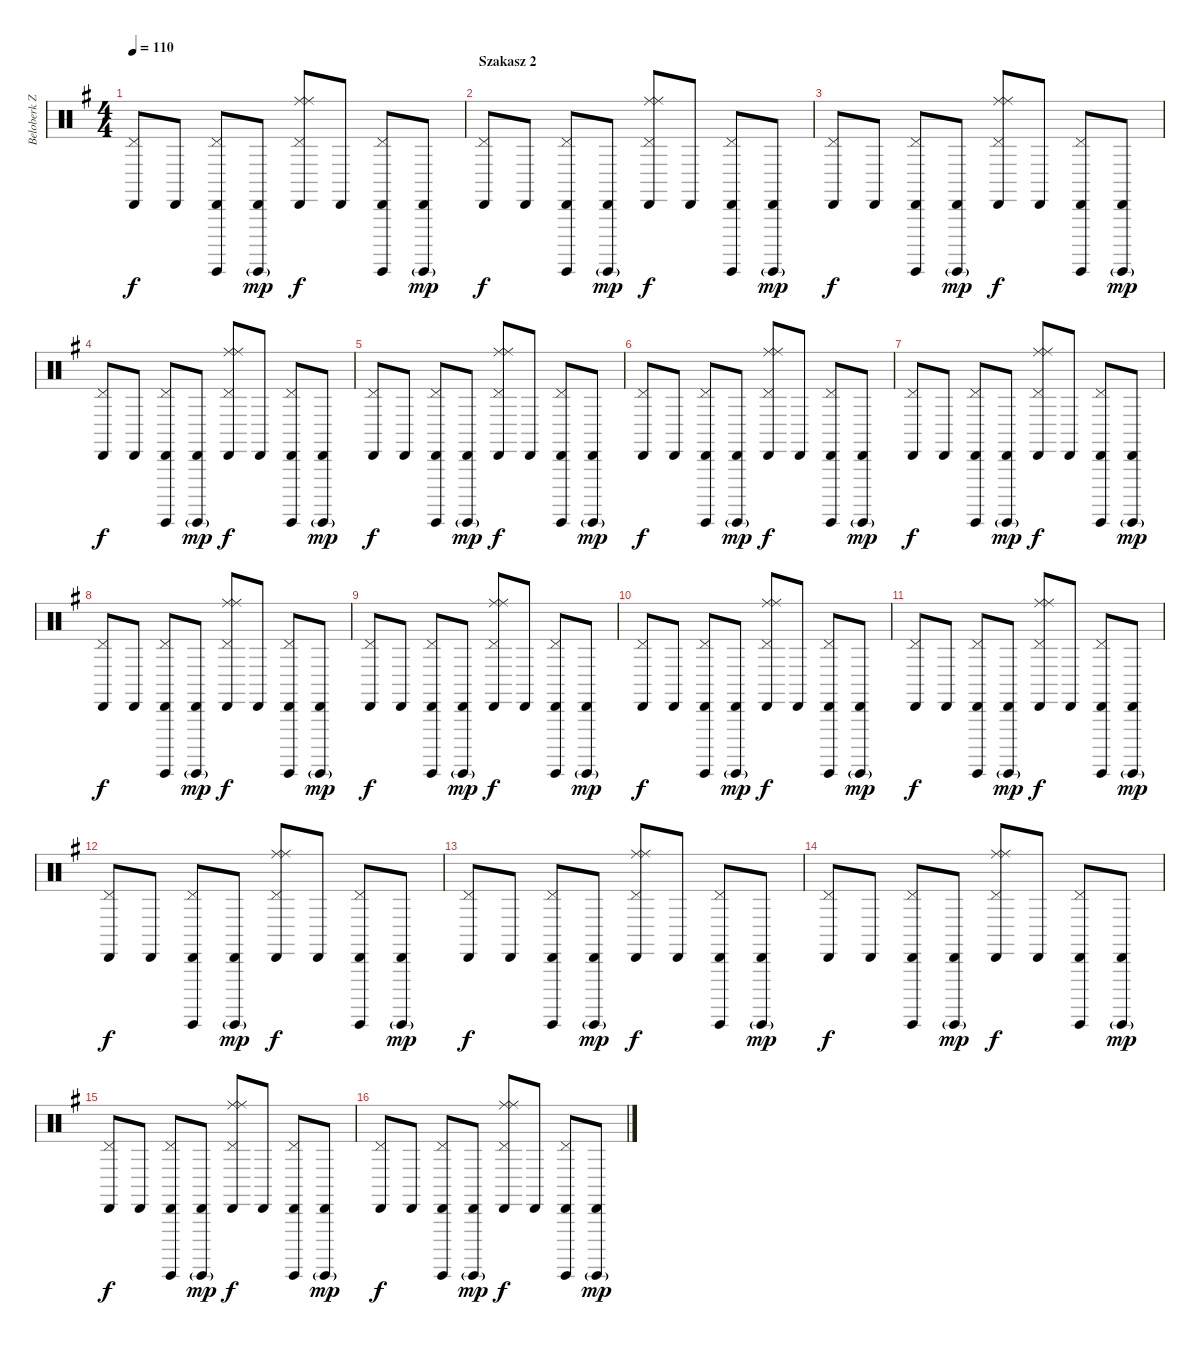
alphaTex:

\track ("Beloberk Zsolt" "Beloberk Z") {instrument percussion}
\staff {score}
\articulation defaults
\ts (4 4)
\tempo 110
\clef neutral
\ks eminor
("Cabasa (hit)" "Pedal Hi-Hat (hit)").8{dy f} "Cabasa (hit)".8 ("Cabasa (hit)" "Guiro (hit)" "Pedal Hi-Hat (hit)").8 ("Cabasa (hit)" "Guiro (hit)"{g}).8{dy mp} ("Cabasa (hit)" "Pedal Hi-Hat (hit)" "Ride (middle)" "Ride (middle)").8{dy f} "Cabasa (hit)".8 ("Cabasa (hit)" "Guiro (hit)" "Pedal Hi-Hat (hit)").8 ("Cabasa (hit)" "Guiro (hit)"{g}).8{dy mp} |
\section ("" "Szakasz 2")
("Cabasa (hit)" "Pedal Hi-Hat (hit)").8{dy f} "Cabasa (hit)".8 ("Cabasa (hit)" "Guiro (hit)" "Pedal Hi-Hat (hit)").8 ("Cabasa (hit)" "Guiro (hit)"{g}).8{dy mp} ("Cabasa (hit)" "Pedal Hi-Hat (hit)" "Ride (middle)" "Ride (middle)").8{dy f} "Cabasa (hit)".8 ("Cabasa (hit)" "Guiro (hit)" "Pedal Hi-Hat (hit)").8 ("Cabasa (hit)" "Guiro (hit)"{g}).8{dy mp} |
("Cabasa (hit)" "Pedal Hi-Hat (hit)").8{dy f} "Cabasa (hit)".8 ("Cabasa (hit)" "Guiro (hit)" "Pedal Hi-Hat (hit)").8 ("Cabasa (hit)" "Guiro (hit)"{g}).8{dy mp} ("Cabasa (hit)" "Pedal Hi-Hat (hit)" "Ride (middle)" "Ride (middle)").8{dy f} "Cabasa (hit)".8 ("Cabasa (hit)" "Guiro (hit)" "Pedal Hi-Hat (hit)").8 ("Cabasa (hit)" "Guiro (hit)"{g}).8{dy mp} |
("Cabasa (hit)" "Pedal Hi-Hat (hit)").8{dy f} "Cabasa (hit)".8 ("Cabasa (hit)" "Guiro (hit)" "Pedal Hi-Hat (hit)").8 ("Cabasa (hit)" "Guiro (hit)"{g}).8{dy mp} ("Cabasa (hit)" "Pedal Hi-Hat (hit)" "Ride (middle)" "Ride (middle)").8{dy f} "Cabasa (hit)".8 ("Cabasa (hit)" "Guiro (hit)" "Pedal Hi-Hat (hit)").8 ("Cabasa (hit)" "Guiro (hit)"{g}).8{dy mp} |
("Cabasa (hit)" "Pedal Hi-Hat (hit)").8{dy f} "Cabasa (hit)".8 ("Cabasa (hit)" "Guiro (hit)" "Pedal Hi-Hat (hit)").8 ("Cabasa (hit)" "Guiro (hit)"{g}).8{dy mp} ("Cabasa (hit)" "Pedal Hi-Hat (hit)" "Ride (middle)" "Ride (middle)").8{dy f} "Cabasa (hit)".8 ("Cabasa (hit)" "Guiro (hit)" "Pedal Hi-Hat (hit)").8 ("Cabasa (hit)" "Guiro (hit)"{g}).8{dy mp} |
("Cabasa (hit)" "Pedal Hi-Hat (hit)").8{dy f} "Cabasa (hit)".8 ("Cabasa (hit)" "Guiro (hit)" "Pedal Hi-Hat (hit)").8 ("Cabasa (hit)" "Guiro (hit)"{g}).8{dy mp} ("Cabasa (hit)" "Pedal Hi-Hat (hit)" "Ride (middle)" "Ride (middle)").8{dy f} "Cabasa (hit)".8 ("Cabasa (hit)" "Guiro (hit)" "Pedal Hi-Hat (hit)").8 ("Cabasa (hit)" "Guiro (hit)"{g}).8{dy mp} |
("Cabasa (hit)" "Pedal Hi-Hat (hit)").8{dy f} "Cabasa (hit)".8 ("Cabasa (hit)" "Guiro (hit)" "Pedal Hi-Hat (hit)").8 ("Cabasa (hit)" "Guiro (hit)"{g}).8{dy mp} ("Cabasa (hit)" "Pedal Hi-Hat (hit)" "Ride (middle)" "Ride (middle)").8{dy f} "Cabasa (hit)".8 ("Cabasa (hit)" "Guiro (hit)" "Pedal Hi-Hat (hit)").8 ("Cabasa (hit)" "Guiro (hit)"{g}).8{dy mp} |
("Cabasa (hit)" "Pedal Hi-Hat (hit)").8{dy f} "Cabasa (hit)".8 ("Cabasa (hit)" "Guiro (hit)" "Pedal Hi-Hat (hit)").8 ("Cabasa (hit)" "Guiro (hit)"{g}).8{dy mp} ("Cabasa (hit)" "Pedal Hi-Hat (hit)" "Ride (middle)" "Ride (middle)").8{dy f} "Cabasa (hit)".8 ("Cabasa (hit)" "Guiro (hit)" "Pedal Hi-Hat (hit)").8 ("Cabasa (hit)" "Guiro (hit)"{g}).8{dy mp} |
("Cabasa (hit)" "Pedal Hi-Hat (hit)").8{dy f} "Cabasa (hit)".8 ("Cabasa (hit)" "Guiro (hit)" "Pedal Hi-Hat (hit)").8 ("Cabasa (hit)" "Guiro (hit)"{g}).8{dy mp} ("Cabasa (hit)" "Pedal Hi-Hat (hit)" "Ride (middle)" "Ride (middle)").8{dy f} "Cabasa (hit)".8 ("Cabasa (hit)" "Guiro (hit)" "Pedal Hi-Hat (hit)").8 ("Cabasa (hit)" "Guiro (hit)"{g}).8{dy mp} |
("Cabasa (hit)" "Pedal Hi-Hat (hit)").8{dy f} "Cabasa (hit)".8 ("Cabasa (hit)" "Guiro (hit)" "Pedal Hi-Hat (hit)").8 ("Cabasa (hit)" "Guiro (hit)"{g}).8{dy mp} ("Cabasa (hit)" "Pedal Hi-Hat (hit)" "Ride (middle)" "Ride (middle)").8{dy f} "Cabasa (hit)".8 ("Cabasa (hit)" "Guiro (hit)" "Pedal Hi-Hat (hit)").8 ("Cabasa (hit)" "Guiro (hit)"{g}).8{dy mp} |
("Cabasa (hit)" "Pedal Hi-Hat (hit)").8{dy f} "Cabasa (hit)".8 ("Cabasa (hit)" "Guiro (hit)" "Pedal Hi-Hat (hit)").8 ("Cabasa (hit)" "Guiro (hit)"{g}).8{dy mp} ("Cabasa (hit)" "Pedal Hi-Hat (hit)" "Ride (middle)" "Ride (middle)").8{dy f} "Cabasa (hit)".8 ("Cabasa (hit)" "Guiro (hit)" "Pedal Hi-Hat (hit)").8 ("Cabasa (hit)" "Guiro (hit)"{g}).8{dy mp} |
("Cabasa (hit)" "Pedal Hi-Hat (hit)").8{dy f} "Cabasa (hit)".8 ("Cabasa (hit)" "Guiro (hit)" "Pedal Hi-Hat (hit)").8 ("Cabasa (hit)" "Guiro (hit)"{g}).8{dy mp} ("Cabasa (hit)" "Pedal Hi-Hat (hit)" "Ride (middle)" "Ride (middle)").8{dy f} "Cabasa (hit)".8 ("Cabasa (hit)" "Guiro (hit)" "Pedal Hi-Hat (hit)").8 ("Cabasa (hit)" "Guiro (hit)"{g}).8{dy mp} |
("Cabasa (hit)" "Pedal Hi-Hat (hit)").8{dy f} "Cabasa (hit)".8 ("Cabasa (hit)" "Guiro (hit)" "Pedal Hi-Hat (hit)").8 ("Cabasa (hit)" "Guiro (hit)"{g}).8{dy mp} ("Cabasa (hit)" "Pedal Hi-Hat (hit)" "Ride (middle)" "Ride (middle)").8{dy f} "Cabasa (hit)".8 ("Cabasa (hit)" "Guiro (hit)" "Pedal Hi-Hat (hit)").8 ("Cabasa (hit)" "Guiro (hit)"{g}).8{dy mp} |
("Cabasa (hit)" "Pedal Hi-Hat (hit)").8{dy f} "Cabasa (hit)".8 ("Cabasa (hit)" "Guiro (hit)" "Pedal Hi-Hat (hit)").8 ("Cabasa (hit)" "Guiro (hit)"{g}).8{dy mp} ("Cabasa (hit)" "Pedal Hi-Hat (hit)" "Ride (middle)" "Ride (middle)").8{dy f} "Cabasa (hit)".8 ("Cabasa (hit)" "Guiro (hit)" "Pedal Hi-Hat (hit)").8 ("Cabasa (hit)" "Guiro (hit)"{g}).8{dy mp} |
("Cabasa (hit)" "Pedal Hi-Hat (hit)").8{dy f} "Cabasa (hit)".8 ("Cabasa (hit)" "Guiro (hit)" "Pedal Hi-Hat (hit)").8 ("Cabasa (hit)" "Guiro (hit)"{g}).8{dy mp} ("Cabasa (hit)" "Pedal Hi-Hat (hit)" "Ride (middle)" "Ride (middle)").8{dy f} "Cabasa (hit)".8 ("Cabasa (hit)" "Guiro (hit)" "Pedal Hi-Hat (hit)").8 ("Cabasa (hit)" "Guiro (hit)"{g}).8{dy mp} |
("Cabasa (hit)" "Pedal Hi-Hat (hit)").8{dy f} "Cabasa (hit)".8 ("Cabasa (hit)" "Guiro (hit)" "Pedal Hi-Hat (hit)").8 ("Cabasa (hit)" "Guiro (hit)"{g}).8{dy mp} ("Cabasa (hit)" "Pedal Hi-Hat (hit)" "Ride (middle)" "Ride (middle)").8{dy f} "Cabasa (hit)".8 ("Cabasa (hit)" "Guiro (hit)" "Pedal Hi-Hat (hit)").8 ("Cabasa (hit)" "Guiro (hit)"{g}).8{dy mp}
